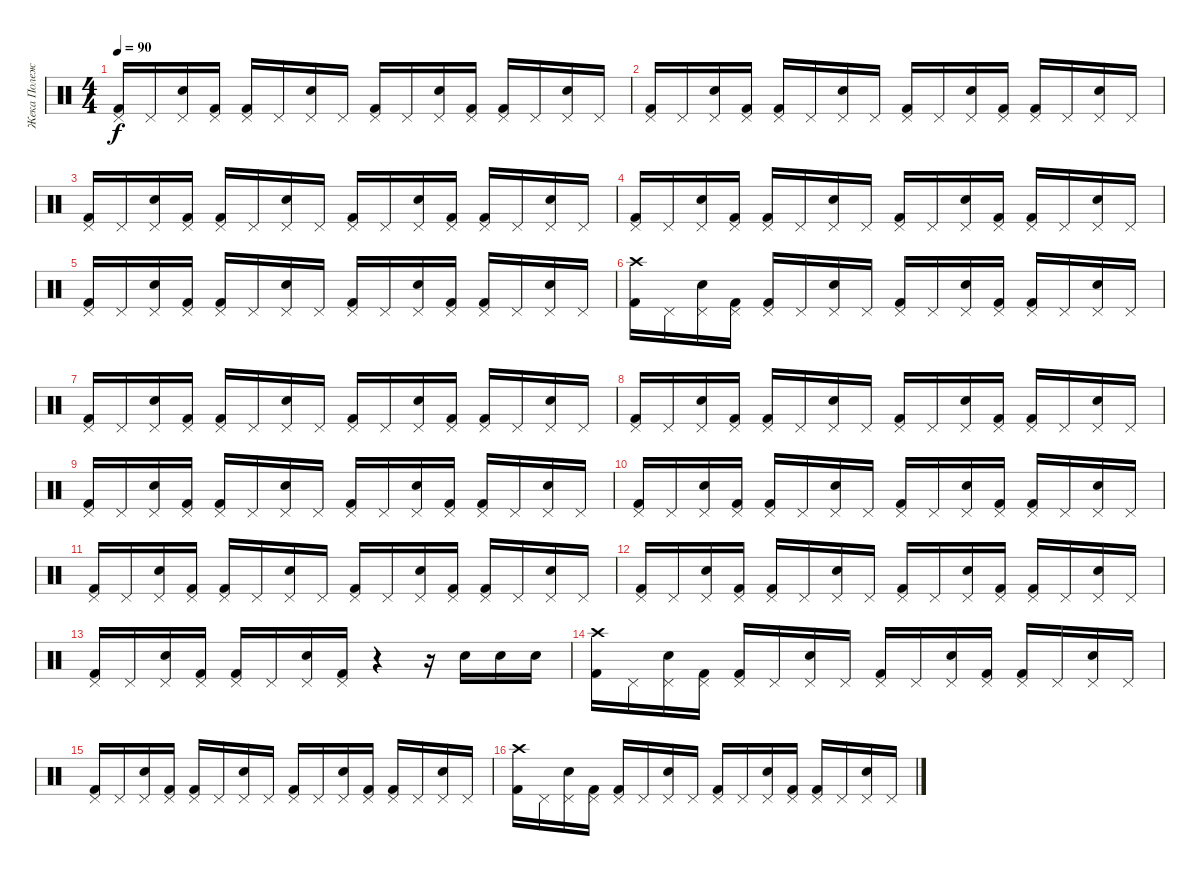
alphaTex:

\track ("Жека Полежаев" "Жека Полеж") {instrument percussion}
\staff {score}
\articulation defaults
\ts (4 4)
\tempo 90
\clef neutral
\ks c
("Pedal Hi-Hat (hit)" "Kick (hit) 2").16{dy f} "Pedal Hi-Hat (hit)".16 ("Pedal Hi-Hat (hit)" "Snare (hit) 2").16 ("Pedal Hi-Hat (hit)" "Kick (hit) 2").16 ("Pedal Hi-Hat (hit)" "Kick (hit) 2").16 "Pedal Hi-Hat (hit)".16 ("Pedal Hi-Hat (hit)" "Snare (hit) 2").16 "Pedal Hi-Hat (hit)".16 ("Pedal Hi-Hat (hit)" "Kick (hit) 2").16 "Pedal Hi-Hat (hit)".16 ("Pedal Hi-Hat (hit)" "Snare (hit) 2").16 ("Pedal Hi-Hat (hit)" "Kick (hit) 2").16 ("Pedal Hi-Hat (hit)" "Kick (hit) 2").16 "Pedal Hi-Hat (hit)".16 ("Pedal Hi-Hat (hit)" "Snare (hit) 2").16 "Pedal Hi-Hat (hit)".16 |
("Pedal Hi-Hat (hit)" "Kick (hit) 2").16 "Pedal Hi-Hat (hit)".16 ("Pedal Hi-Hat (hit)" "Snare (hit) 2").16 ("Pedal Hi-Hat (hit)" "Kick (hit) 2").16 ("Pedal Hi-Hat (hit)" "Kick (hit) 2").16 "Pedal Hi-Hat (hit)".16 ("Pedal Hi-Hat (hit)" "Snare (hit) 2").16 "Pedal Hi-Hat (hit)".16 ("Pedal Hi-Hat (hit)" "Kick (hit) 2").16 "Pedal Hi-Hat (hit)".16 ("Pedal Hi-Hat (hit)" "Snare (hit) 2").16 ("Pedal Hi-Hat (hit)" "Kick (hit) 2").16 ("Pedal Hi-Hat (hit)" "Kick (hit) 2").16 "Pedal Hi-Hat (hit)".16 ("Pedal Hi-Hat (hit)" "Snare (hit) 2").16 "Pedal Hi-Hat (hit)".16 |
("Pedal Hi-Hat (hit)" "Kick (hit) 2").16 "Pedal Hi-Hat (hit)".16 ("Pedal Hi-Hat (hit)" "Snare (hit) 2").16 ("Pedal Hi-Hat (hit)" "Kick (hit) 2").16 ("Pedal Hi-Hat (hit)" "Kick (hit) 2").16 "Pedal Hi-Hat (hit)".16 ("Pedal Hi-Hat (hit)" "Snare (hit) 2").16 "Pedal Hi-Hat (hit)".16 ("Pedal Hi-Hat (hit)" "Kick (hit) 2").16 "Pedal Hi-Hat (hit)".16 ("Pedal Hi-Hat (hit)" "Snare (hit) 2").16 ("Pedal Hi-Hat (hit)" "Kick (hit) 2").16 ("Pedal Hi-Hat (hit)" "Kick (hit) 2").16 "Pedal Hi-Hat (hit)".16 ("Pedal Hi-Hat (hit)" "Snare (hit) 2").16 "Pedal Hi-Hat (hit)".16 |
("Pedal Hi-Hat (hit)" "Kick (hit) 2").16 "Pedal Hi-Hat (hit)".16 ("Pedal Hi-Hat (hit)" "Snare (hit) 2").16 ("Pedal Hi-Hat (hit)" "Kick (hit) 2").16 ("Pedal Hi-Hat (hit)" "Kick (hit) 2").16 "Pedal Hi-Hat (hit)".16 ("Pedal Hi-Hat (hit)" "Snare (hit) 2").16 "Pedal Hi-Hat (hit)".16 ("Pedal Hi-Hat (hit)" "Kick (hit) 2").16 "Pedal Hi-Hat (hit)".16 ("Pedal Hi-Hat (hit)" "Snare (hit) 2").16 ("Pedal Hi-Hat (hit)" "Kick (hit) 2").16 ("Pedal Hi-Hat (hit)" "Kick (hit) 2").16 "Pedal Hi-Hat (hit)".16 ("Pedal Hi-Hat (hit)" "Snare (hit) 2").16 "Pedal Hi-Hat (hit)".16 |
("Pedal Hi-Hat (hit)" "Kick (hit) 2").16 "Pedal Hi-Hat (hit)".16 ("Pedal Hi-Hat (hit)" "Snare (hit) 2").16 ("Pedal Hi-Hat (hit)" "Kick (hit) 2").16 ("Pedal Hi-Hat (hit)" "Kick (hit) 2").16 "Pedal Hi-Hat (hit)".16 ("Pedal Hi-Hat (hit)" "Snare (hit) 2").16 "Pedal Hi-Hat (hit)".16 ("Pedal Hi-Hat (hit)" "Kick (hit) 2").16 "Pedal Hi-Hat (hit)".16 ("Pedal Hi-Hat (hit)" "Snare (hit) 2").16 ("Pedal Hi-Hat (hit)" "Kick (hit) 2").16 ("Pedal Hi-Hat (hit)" "Kick (hit) 2").16 "Pedal Hi-Hat (hit)".16 ("Pedal Hi-Hat (hit)" "Snare (hit) 2").16 "Pedal Hi-Hat (hit)".16 |
("Crash high (hit)" "Kick (hit) 2").16 "Pedal Hi-Hat (hit)".16 ("Pedal Hi-Hat (hit)" "Snare (hit) 2").16 ("Pedal Hi-Hat (hit)" "Kick (hit) 2").16 ("Pedal Hi-Hat (hit)" "Kick (hit) 2").16 "Pedal Hi-Hat (hit)".16 ("Pedal Hi-Hat (hit)" "Snare (hit) 2").16 "Pedal Hi-Hat (hit)".16 ("Pedal Hi-Hat (hit)" "Kick (hit) 2").16 "Pedal Hi-Hat (hit)".16 ("Pedal Hi-Hat (hit)" "Snare (hit) 2").16 ("Pedal Hi-Hat (hit)" "Kick (hit) 2").16 ("Pedal Hi-Hat (hit)" "Kick (hit) 2").16 "Pedal Hi-Hat (hit)".16 ("Pedal Hi-Hat (hit)" "Snare (hit) 2").16 "Pedal Hi-Hat (hit)".16 |
("Pedal Hi-Hat (hit)" "Kick (hit) 2").16 "Pedal Hi-Hat (hit)".16 ("Pedal Hi-Hat (hit)" "Snare (hit) 2").16 ("Pedal Hi-Hat (hit)" "Kick (hit) 2").16 ("Pedal Hi-Hat (hit)" "Kick (hit) 2").16 "Pedal Hi-Hat (hit)".16 ("Pedal Hi-Hat (hit)" "Snare (hit) 2").16 "Pedal Hi-Hat (hit)".16 ("Pedal Hi-Hat (hit)" "Kick (hit) 2").16 "Pedal Hi-Hat (hit)".16 ("Pedal Hi-Hat (hit)" "Snare (hit) 2").16 ("Pedal Hi-Hat (hit)" "Kick (hit) 2").16 ("Pedal Hi-Hat (hit)" "Kick (hit) 2").16 "Pedal Hi-Hat (hit)".16 ("Pedal Hi-Hat (hit)" "Snare (hit) 2").16 "Pedal Hi-Hat (hit)".16 |
("Pedal Hi-Hat (hit)" "Kick (hit) 2").16 "Pedal Hi-Hat (hit)".16 ("Pedal Hi-Hat (hit)" "Snare (hit) 2").16 ("Pedal Hi-Hat (hit)" "Kick (hit) 2").16 ("Pedal Hi-Hat (hit)" "Kick (hit) 2").16 "Pedal Hi-Hat (hit)".16 ("Pedal Hi-Hat (hit)" "Snare (hit) 2").16 "Pedal Hi-Hat (hit)".16 ("Pedal Hi-Hat (hit)" "Kick (hit) 2").16 "Pedal Hi-Hat (hit)".16 ("Pedal Hi-Hat (hit)" "Snare (hit) 2").16 ("Pedal Hi-Hat (hit)" "Kick (hit) 2").16 ("Pedal Hi-Hat (hit)" "Kick (hit) 2").16 "Pedal Hi-Hat (hit)".16 ("Pedal Hi-Hat (hit)" "Snare (hit) 2").16 "Pedal Hi-Hat (hit)".16 |
("Pedal Hi-Hat (hit)" "Kick (hit) 2").16 "Pedal Hi-Hat (hit)".16 ("Pedal Hi-Hat (hit)" "Snare (hit) 2").16 ("Pedal Hi-Hat (hit)" "Kick (hit) 2").16 ("Pedal Hi-Hat (hit)" "Kick (hit) 2").16 "Pedal Hi-Hat (hit)".16 ("Pedal Hi-Hat (hit)" "Snare (hit) 2").16 "Pedal Hi-Hat (hit)".16 ("Pedal Hi-Hat (hit)" "Kick (hit) 2").16 "Pedal Hi-Hat (hit)".16 ("Pedal Hi-Hat (hit)" "Snare (hit) 2").16 ("Pedal Hi-Hat (hit)" "Kick (hit) 2").16 ("Pedal Hi-Hat (hit)" "Kick (hit) 2").16 "Pedal Hi-Hat (hit)".16 ("Pedal Hi-Hat (hit)" "Snare (hit) 2").16 "Pedal Hi-Hat (hit)".16 |
("Pedal Hi-Hat (hit)" "Kick (hit) 2").16 "Pedal Hi-Hat (hit)".16 ("Pedal Hi-Hat (hit)" "Snare (hit) 2").16 ("Pedal Hi-Hat (hit)" "Kick (hit) 2").16 ("Pedal Hi-Hat (hit)" "Kick (hit) 2").16 "Pedal Hi-Hat (hit)".16 ("Pedal Hi-Hat (hit)" "Snare (hit) 2").16 "Pedal Hi-Hat (hit)".16 ("Pedal Hi-Hat (hit)" "Kick (hit) 2").16 "Pedal Hi-Hat (hit)".16 ("Pedal Hi-Hat (hit)" "Snare (hit) 2").16 ("Pedal Hi-Hat (hit)" "Kick (hit) 2").16 ("Pedal Hi-Hat (hit)" "Kick (hit) 2").16 "Pedal Hi-Hat (hit)".16 ("Pedal Hi-Hat (hit)" "Snare (hit) 2").16 "Pedal Hi-Hat (hit)".16 |
("Pedal Hi-Hat (hit)" "Kick (hit) 2").16 "Pedal Hi-Hat (hit)".16 ("Pedal Hi-Hat (hit)" "Snare (hit) 2").16 ("Pedal Hi-Hat (hit)" "Kick (hit) 2").16 ("Pedal Hi-Hat (hit)" "Kick (hit) 2").16 "Pedal Hi-Hat (hit)".16 ("Pedal Hi-Hat (hit)" "Snare (hit) 2").16 "Pedal Hi-Hat (hit)".16 ("Pedal Hi-Hat (hit)" "Kick (hit) 2").16 "Pedal Hi-Hat (hit)".16 ("Pedal Hi-Hat (hit)" "Snare (hit) 2").16 ("Pedal Hi-Hat (hit)" "Kick (hit) 2").16 ("Pedal Hi-Hat (hit)" "Kick (hit) 2").16 "Pedal Hi-Hat (hit)".16 ("Pedal Hi-Hat (hit)" "Snare (hit) 2").16 "Pedal Hi-Hat (hit)".16 |
("Pedal Hi-Hat (hit)" "Kick (hit) 2").16 "Pedal Hi-Hat (hit)".16 ("Pedal Hi-Hat (hit)" "Snare (hit) 2").16 ("Pedal Hi-Hat (hit)" "Kick (hit) 2").16 ("Pedal Hi-Hat (hit)" "Kick (hit) 2").16 "Pedal Hi-Hat (hit)".16 ("Pedal Hi-Hat (hit)" "Snare (hit) 2").16 "Pedal Hi-Hat (hit)".16 ("Pedal Hi-Hat (hit)" "Kick (hit) 2").16 "Pedal Hi-Hat (hit)".16 ("Pedal Hi-Hat (hit)" "Snare (hit) 2").16 ("Pedal Hi-Hat (hit)" "Kick (hit) 2").16 ("Pedal Hi-Hat (hit)" "Kick (hit) 2").16 "Pedal Hi-Hat (hit)".16 ("Pedal Hi-Hat (hit)" "Snare (hit) 2").16 "Pedal Hi-Hat (hit)".16 |
("Pedal Hi-Hat (hit)" "Kick (hit) 2").16 "Pedal Hi-Hat (hit)".16 ("Pedal Hi-Hat (hit)" "Snare (hit) 2").16 ("Pedal Hi-Hat (hit)" "Kick (hit) 2").16 ("Pedal Hi-Hat (hit)" "Kick (hit) 2").16 "Pedal Hi-Hat (hit)".16 ("Pedal Hi-Hat (hit)" "Snare (hit) 2").16 ("Pedal Hi-Hat (hit)" "Kick (hit) 2").16 r.4 r.16 "Snare (hit) 2".16 "Snare (hit) 2".16 "Snare (hit) 2".16 |
("Crash high (hit)" "Kick (hit) 2").16 "Pedal Hi-Hat (hit)".16 ("Pedal Hi-Hat (hit)" "Snare (hit) 2").16 ("Pedal Hi-Hat (hit)" "Kick (hit) 2").16 ("Pedal Hi-Hat (hit)" "Kick (hit) 2").16 "Pedal Hi-Hat (hit)".16 ("Pedal Hi-Hat (hit)" "Snare (hit) 2").16 "Pedal Hi-Hat (hit)".16 ("Pedal Hi-Hat (hit)" "Kick (hit) 2").16 "Pedal Hi-Hat (hit)".16 ("Pedal Hi-Hat (hit)" "Snare (hit) 2").16 ("Pedal Hi-Hat (hit)" "Kick (hit) 2").16 ("Pedal Hi-Hat (hit)" "Kick (hit) 2").16 "Pedal Hi-Hat (hit)".16 ("Pedal Hi-Hat (hit)" "Snare (hit) 2").16 "Pedal Hi-Hat (hit)".16 |
("Pedal Hi-Hat (hit)" "Kick (hit) 2").16 "Pedal Hi-Hat (hit)".16 ("Pedal Hi-Hat (hit)" "Snare (hit) 2").16 ("Pedal Hi-Hat (hit)" "Kick (hit) 2").16 ("Pedal Hi-Hat (hit)" "Kick (hit) 2").16 "Pedal Hi-Hat (hit)".16 ("Pedal Hi-Hat (hit)" "Snare (hit) 2").16 "Pedal Hi-Hat (hit)".16 ("Pedal Hi-Hat (hit)" "Kick (hit) 2").16 "Pedal Hi-Hat (hit)".16 ("Pedal Hi-Hat (hit)" "Snare (hit) 2").16 ("Pedal Hi-Hat (hit)" "Kick (hit) 2").16 ("Pedal Hi-Hat (hit)" "Kick (hit) 2").16 "Pedal Hi-Hat (hit)".16 ("Pedal Hi-Hat (hit)" "Snare (hit) 2").16 "Pedal Hi-Hat (hit)".16 |
("Crash high (hit)" "Kick (hit) 2").16 "Pedal Hi-Hat (hit)".16 ("Pedal Hi-Hat (hit)" "Snare (hit) 2").16 ("Pedal Hi-Hat (hit)" "Kick (hit) 2").16 ("Pedal Hi-Hat (hit)" "Kick (hit) 2").16 "Pedal Hi-Hat (hit)".16 ("Pedal Hi-Hat (hit)" "Snare (hit) 2").16 "Pedal Hi-Hat (hit)".16 ("Pedal Hi-Hat (hit)" "Kick (hit) 2").16 "Pedal Hi-Hat (hit)".16 ("Pedal Hi-Hat (hit)" "Snare (hit) 2").16 ("Pedal Hi-Hat (hit)" "Kick (hit) 2").16 ("Pedal Hi-Hat (hit)" "Kick (hit) 2").16 "Pedal Hi-Hat (hit)".16 ("Pedal Hi-Hat (hit)" "Snare (hit) 2").16 "Pedal Hi-Hat (hit)".16
